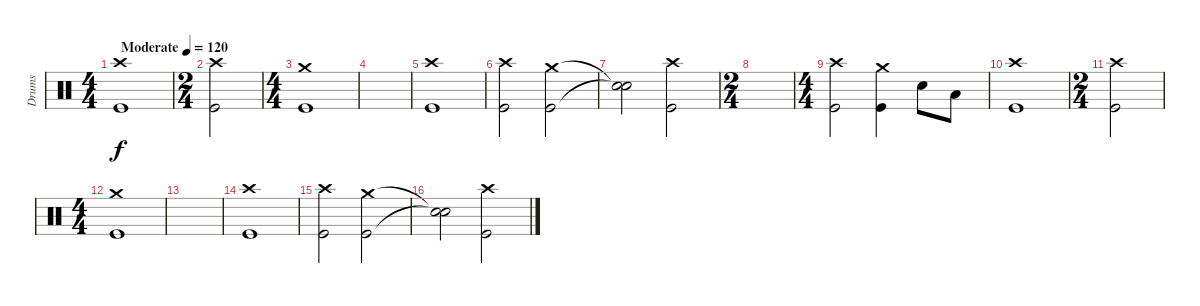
\track ("Drums" "Drums") {instrument percussion}
\staff {score}
\articulation defaults
\ts (4 4)
\tempo (120 "Moderate")
\clef neutral
\ks c
("Crash high (hit)" "Kick (hit)").1{dy f} |
\ts (2 4)
("Crash high (hit)" "Kick (hit)").2 |
\ts (4 4)
("Crash medium (hit)" "Kick (hit)").1 |
|
("Crash high (hit)" "Kick (hit)").1 |
("Crash high (hit)" "Kick (hit)").2 ("Crash medium (hit)" "Kick (hit)").2 |
("Snare (hit)"{t} "Snare (hit)"{t}).2 ("Crash high (hit)" "Kick (hit)").2 |
\ts (2 4)
|
\ts (4 4)
("Crash high (hit)" "Kick (hit)").2 ("Crash medium (hit)" "Kick (hit)").4 "Snare (hit) 2".8 "Low Tom (hit)".8 |
("Crash high (hit)" "Kick (hit)").1 |
\ts (2 4)
("Crash high (hit)" "Kick (hit)").2 |
\ts (4 4)
("Crash medium (hit)" "Kick (hit)").1 |
|
("Crash high (hit)" "Kick (hit)").1 |
("Crash high (hit)" "Kick (hit)").2 ("Crash medium (hit)" "Kick (hit)").2 |
("Snare (hit)"{t} "Snare (hit)"{t}).2 ("Crash high (hit)" "Kick (hit)").2
